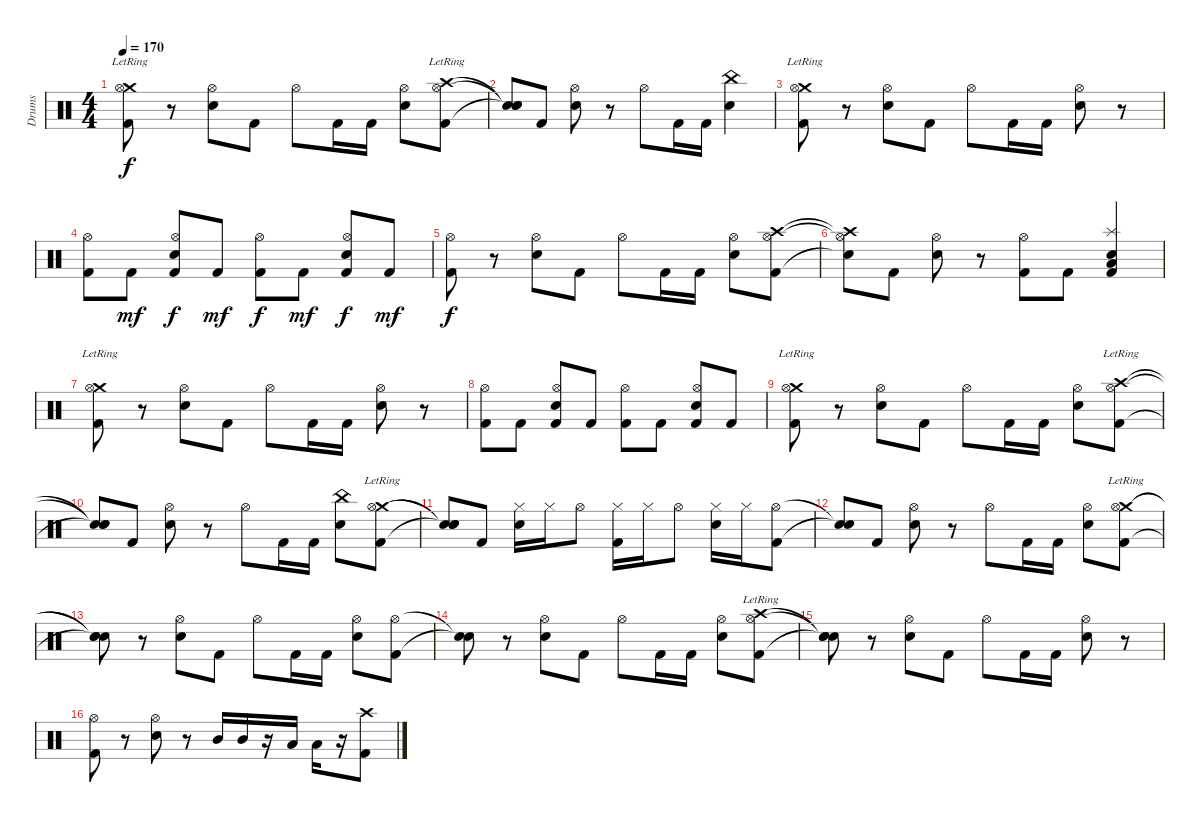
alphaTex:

\track ("Drums" "Drums") {instrument percussion}
\staff {score}
\articulation defaults
\ts (4 4)
\tempo 170
\clef neutral
\ks c
("Crash medium (hit)"{lr} "Kick (hit) 2" "Hi-Hat (open)").8{dy f} r.8 ("Electric Snare (hit)" "Hi-Hat (open)").8 "Kick (hit) 2".8 "Hi-Hat (open)".8 "Kick (hit) 2".16 "Kick (hit) 2".16 ("Electric Snare (hit)" "Hi-Hat (open)").8 ("Crash high (hit)"{lr} "Kick (hit) 2" "Hi-Hat (open)").8 |
("Snare (hit)"{t} "Snare (hit)"{t} "Snare (hit)"{t}).8 "Kick (hit) 2".8 ("Electric Snare (hit)" "Hi-Hat (open)").8 r.8 "Hi-Hat (open)".8 "Kick (hit) 2".16 "Kick (hit) 2".16 ("China (hit)" "Electric Snare (hit)").4 |
("Crash medium (hit)"{lr} "Kick (hit) 2" "Hi-Hat (open)").8 r.8 ("Electric Snare (hit)" "Hi-Hat (open)").8 "Kick (hit) 2".8 "Hi-Hat (open)".8 "Kick (hit) 2".16 "Kick (hit) 2".16 ("Electric Snare (hit)" "Hi-Hat (open)").8 r.8 |
("Kick (hit) 2" "Hi-Hat (open)").8 "Kick (hit) 2".8{dy mf} ("Electric Snare (hit)" "Kick (hit) 2" "Hi-Hat (open)").8{dy f} "Kick (hit) 2".8{dy mf} ("Kick (hit) 2" "Hi-Hat (open)").8{dy f} "Kick (hit) 2".8{dy mf} ("Electric Snare (hit)" "Kick (hit) 2" "Hi-Hat (open)").8{dy f} "Kick (hit) 2".8{dy mf} |
("Kick (hit) 2" "Hi-Hat (open)").8{dy f} r.8 ("Electric Snare (hit)" "Hi-Hat (open)").8 "Kick (hit) 2".8 "Hi-Hat (open)".8 "Kick (hit) 2".16 "Kick (hit) 2".16 ("Electric Snare (hit)" "Hi-Hat (open)").8 ("Crash high (hit)" "Kick (hit) 2" "Hi-Hat (open)").8 |
("Crash high (hit)"{t} "Snare (hit)"{t} "Hi-Hat (open)"{t}).8 "Kick (hit) 2".8 ("Electric Snare (hit)" "Hi-Hat (open)").8 r.8 ("Kick (hit) 2" "Hi-Hat (open)").8 "Kick (hit) 2".8 ("Splash (hit)" "Low Floor Tom (hit)" "Electric Snare (hit)" "Kick (hit) 2").4 |
("Crash medium (hit)"{lr} "Kick (hit) 2" "Hi-Hat (open)").8 r.8 ("Electric Snare (hit)" "Hi-Hat (open)").8 "Kick (hit) 2".8 "Hi-Hat (open)".8 "Kick (hit) 2".16 "Kick (hit) 2".16 ("Electric Snare (hit)" "Hi-Hat (open)").8 r.8 |
("Kick (hit) 2" "Hi-Hat (open)").8 "Kick (hit) 2".8 ("Electric Snare (hit)" "Kick (hit) 2" "Hi-Hat (open)").8 "Kick (hit) 2".8 ("Kick (hit) 2" "Hi-Hat (open)").8 "Kick (hit) 2".8 ("Electric Snare (hit)" "Kick (hit) 2" "Hi-Hat (open)").8 "Kick (hit) 2".8 |
("Crash medium (hit)"{lr} "Kick (hit) 2" "Hi-Hat (open)").8 r.8 ("Electric Snare (hit)" "Hi-Hat (open)").8 "Kick (hit) 2".8 "Hi-Hat (open)".8 "Kick (hit) 2".16 "Kick (hit) 2".16 ("Electric Snare (hit)" "Hi-Hat (open)").8 ("Crash high (hit)"{lr} "Kick (hit) 2" "Hi-Hat (open)").8 |
("Snare (hit)"{t} "Snare (hit)"{t} "Snare (hit)"{t}).8 "Kick (hit) 2".8 ("Electric Snare (hit)" "Hi-Hat (open)").8 r.8 "Hi-Hat (open)".8 "Kick (hit) 2".16 "Kick (hit) 2".16 ("China (hit)" "Electric Snare (hit)").8 ("Crash medium (hit)"{lr} "Kick (hit) 2" "Hi-Hat (open)").8 |
("Snare (hit)"{t} "Snare (hit)"{t} "Snare (hit)"{t}).8 "Kick (hit) 2".8 ("Electric Snare (hit)" "Hi-Hat (closed)").16 "Hi-Hat (closed)".16 "Hi-Hat (open)".8 ("Kick (hit) 2" "Hi-Hat (closed)").16 "Hi-Hat (closed)".16 "Hi-Hat (open)".8 ("Electric Snare (hit)" "Hi-Hat (closed)").16 "Hi-Hat (closed)".16 ("Kick (hit) 2" "Hi-Hat (open)").8 |
("Snare (hit)"{t} "Snare (hit)"{t}).8 "Kick (hit) 2".8 ("Electric Snare (hit)" "Hi-Hat (open)").8 r.8 "Hi-Hat (open)".8 "Kick (hit) 2".16 "Kick (hit) 2".16 ("Electric Snare (hit)" "Hi-Hat (open)").8 ("Crash medium (hit)"{lr} "Kick (hit) 2" "Hi-Hat (open)").8 |
("Snare (hit)"{t} "Snare (hit)"{t} "Snare (hit)"{t}).8 r.8 ("Electric Snare (hit)" "Hi-Hat (open)").8 "Kick (hit) 2".8 "Hi-Hat (open)".8 "Kick (hit) 2".16 "Kick (hit) 2".16 ("Electric Snare (hit)" "Hi-Hat (open)").8 ("Kick (hit) 2" "Hi-Hat (open)").8 |
("Snare (hit)"{t} "Snare (hit)"{t}).8 r.8 ("Electric Snare (hit)" "Hi-Hat (open)").8 "Kick (hit) 2".8 "Hi-Hat (open)".8 "Kick (hit) 2".16 "Kick (hit) 2".16 ("Electric Snare (hit)" "Hi-Hat (open)").8 ("Crash high (hit)"{lr} "Kick (hit) 2" "Hi-Hat (open)").8 |
("Snare (hit)"{t} "Snare (hit)"{t} "Snare (hit)"{t}).8 r.8 ("Electric Snare (hit)" "Hi-Hat (open)").8 "Kick (hit) 2".8 "Hi-Hat (open)".8 "Kick (hit) 2".16 "Kick (hit) 2".16 ("Electric Snare (hit)" "Hi-Hat (open)").8 r.8 |
("Kick (hit) 2" "Hi-Hat (open)").8 r.8 ("Electric Snare (hit)" "Hi-Hat (open)").8 r.8 "Mid Tom (hit)".16 "Mid Tom (hit)".16 r.16 "Low Tom (hit)".16 "Low Tom (hit)".16 r.16 ("Crash high (hit)" "Kick (hit) 2").8
